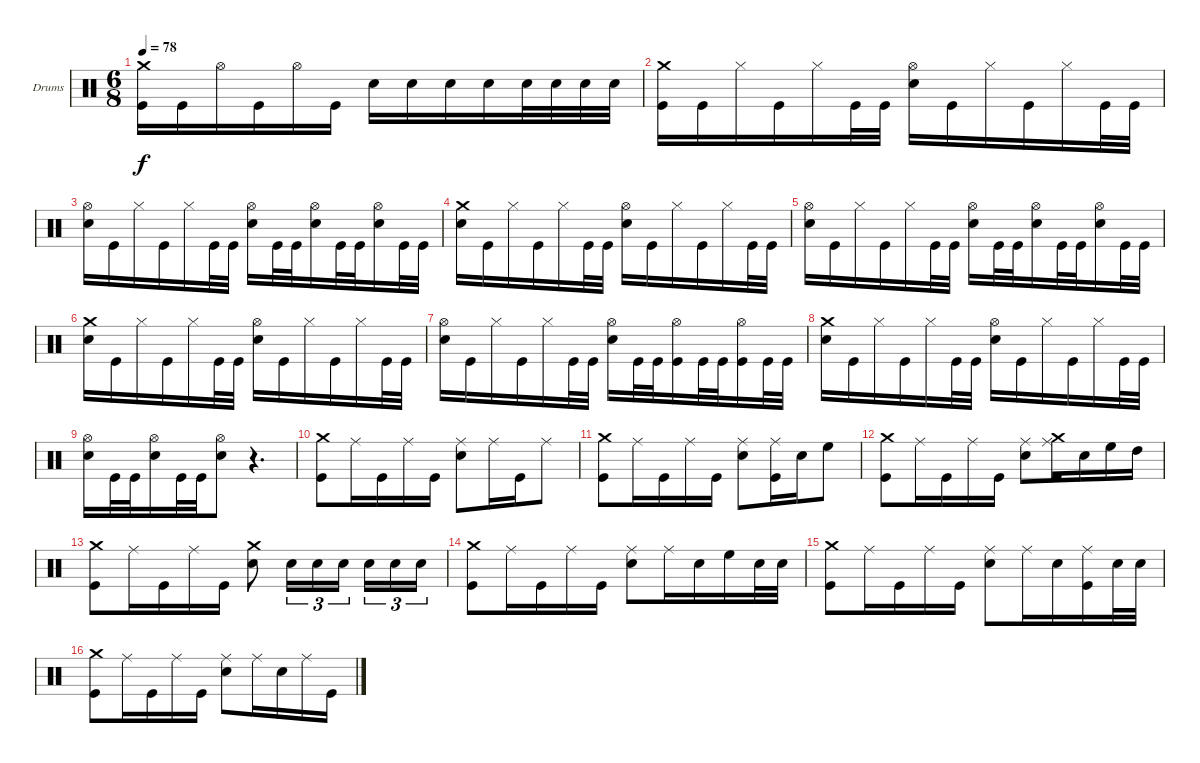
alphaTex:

\defaultSystemsLayout 4
\bracketExtendMode groupsimilarinstruments
\firstSystemTrackNameOrientation horizontal
\otherSystemsTrackNameOrientation horizontal
\track ("Drums" "Drums") {instrument percussion}
\staff {score}
\articulation defaults
\ts (6 8)
\tempo 78
\clef neutral
\scale
0.333333
\ks c
("Crash medium (hit)" "Kick (hit)").16{dy f} "Kick (hit)".16 "Hi-Hat (open)".16 "Kick (hit)".16 "Hi-Hat (open)".16 "Kick (hit)".16 "Snare (hit) 2".16 "Snare (hit) 2".16 "Snare (hit) 2".16 "Snare (hit) 2".16 "Snare (hit) 2".32 "Snare (hit) 2".32 "Snare (hit) 2".32 "Snare (hit) 2".32 |
\scale
0.333333 ("Crash medium (hit)" "Kick (hit)").16 "Kick (hit)".16 "Hi-Hat (closed)".16 "Kick (hit)".16 "Hi-Hat (closed)".16 "Kick (hit)".32 "Kick (hit)".32 ("Hi-Hat (open)" "Snare (hit) 2").16 "Kick (hit)".16 "Hi-Hat (closed)".16 "Kick (hit)".16 "Hi-Hat (closed)".16 "Kick (hit)".32 "Kick (hit)".32 |
\scale
0.333333 ("Hi-Hat (open)" "Snare (hit) 2").16 "Kick (hit)".16 "Hi-Hat (closed)".16 "Kick (hit)".16 "Hi-Hat (closed)".16 "Kick (hit)".32 "Kick (hit)".32 ("Hi-Hat (open)" "Snare (hit) 2").16 "Kick (hit)".32 "Kick (hit)".32 ("Hi-Hat (open)" "Snare (hit) 2").16 "Kick (hit)".32 "Kick (hit)".32 ("Hi-Hat (open)" "Snare (hit) 2").16 "Kick (hit)".32 "Kick (hit)".32 |
\scale
0.333333 ("Crash medium (hit)" "Snare (hit) 2").16 "Kick (hit)".16 "Hi-Hat (closed)".16 "Kick (hit)".16 "Hi-Hat (closed)".16 "Kick (hit)".32 "Kick (hit)".32 ("Hi-Hat (open)" "Snare (hit) 2").16 "Kick (hit)".16 "Hi-Hat (closed)".16 "Kick (hit)".16 "Hi-Hat (closed)".16 "Kick (hit)".32 "Kick (hit)".32 |
\scale
0.333333 ("Hi-Hat (open)" "Snare (hit) 2").16 "Kick (hit)".16 "Hi-Hat (closed)".16 "Kick (hit)".16 "Hi-Hat (closed)".16 "Kick (hit)".32 "Kick (hit)".32 ("Hi-Hat (open)" "Snare (hit) 2").16 "Kick (hit)".32 "Kick (hit)".32 ("Hi-Hat (open)" "Snare (hit) 2").16 "Kick (hit)".32 "Kick (hit)".32 ("Hi-Hat (open)" "Snare (hit) 2").16 "Kick (hit)".32 "Kick (hit)".32 |
\scale
0.333333 ("Crash medium (hit)" "Snare (hit) 2").16 "Kick (hit)".16 "Hi-Hat (closed)".16 "Kick (hit)".16 "Hi-Hat (closed)".16 "Kick (hit)".32 "Kick (hit)".32 ("Hi-Hat (open)" "Snare (hit) 2").16 "Kick (hit)".16 "Hi-Hat (closed)".16 "Kick (hit)".16 "Hi-Hat (closed)".16 "Kick (hit)".32 "Kick (hit)".32 |
\scale
0.333333 ("Hi-Hat (open)" "Snare (hit) 2").16 "Kick (hit)".16 "Hi-Hat (closed)".16 "Kick (hit)".16 "Hi-Hat (closed)".16 "Kick (hit)".32 "Kick (hit)".32 ("Hi-Hat (open)" "Snare (hit) 2").16 "Kick (hit)".32 "Kick (hit)".32 ("Hi-Hat (open)" "Kick (hit)").16 "Kick (hit)".32 "Kick (hit)".32 ("Hi-Hat (open)" "Kick (hit)").16 "Kick (hit)".32 "Kick (hit)".32 |
\scale
0.333333 ("Crash medium (hit)" "Snare (hit) 2").16 "Kick (hit)".16 "Hi-Hat (closed)".16 "Kick (hit)".16 "Hi-Hat (closed)".16 "Kick (hit)".32 "Kick (hit)".32 ("Hi-Hat (open)" "Snare (hit) 2").16 "Kick (hit)".16 "Hi-Hat (closed)".16 "Kick (hit)".16 "Hi-Hat (closed)".16 "Kick (hit)".32 "Kick (hit)".32 |
\scale
0.333333 ("Hi-Hat (open)" "Snare (hit) 2").16 "Kick (hit)".32 "Kick (hit)".32 ("Hi-Hat (open)" "Snare (hit) 2").16 "Kick (hit)".32 "Kick (hit)".32 ("Hi-Hat (open)" "Snare (hit) 2").8 r.4{d} |
\scale
0.333333 ("Crash medium (hit)" "Kick (hit)").8 "Ride (middle)".16 "Kick (hit)".16 "Ride (middle)".16 "Kick (hit)".16 ("Ride (middle)" "Snare (hit) 2").8 "Ride (middle)".16 "Kick (hit)".16 "Ride (middle)".8 |
\scale
0.333333 ("Crash medium (hit)" "Kick (hit)").8 "Ride (middle)".16 "Kick (hit)".16 "Ride (middle)".16 "Kick (hit)".16 ("Ride (middle)" "Snare (hit) 2").8 ("Ride (middle)" "Kick (hit)").16 "Snare (hit) 2".16 "High Floor Tom (hit)".8 |
\scale
0.333333 ("Crash medium (hit)" "Kick (hit)").8 "Ride (middle)".16 "Kick (hit)".16 "Ride (middle)".16 "Kick (hit)".16 ("Ride (middle)" "Snare (hit) 2").8 ("Crash medium (hit)" "Ride (middle)" "Kick (hit)").16 "Snare (hit) 2".16 "High Floor Tom (hit)".16 "High Tom (hit)".16 |
\scale
0.333333 ("Crash medium (hit)" "Kick (hit)").8 "Ride (middle)".16 "Kick (hit)".16 "Ride (middle)".16 "Kick (hit)".16 ("Crash medium (hit)" "Snare (hit) 2").8 "Snare (hit) 2".16{tu (3 2)} "Snare (hit) 2".16{tu (3 2)} "Snare (hit) 2".16{tu (3 2)} "Snare (hit) 2".16{tu (3 2)} "Snare (hit) 2".16{tu (3 2)} "Snare (hit) 2".16{tu (3 2)} |
\scale
0.333333 ("Crash medium (hit)" "Kick (hit)").8 "Ride (middle)".16 "Kick (hit)".16 "Ride (middle)".16 "Kick (hit)".16 ("Ride (middle)" "Snare (hit) 2").8 "Ride (middle)".16 "Snare (hit) 2".16 "High Floor Tom (hit)".16 "Snare (hit) 2".32 "Snare (hit) 2".32 |
\scale
0.333333 ("Crash medium (hit)" "Kick (hit)").8 "Ride (middle)".16 "Kick (hit)".16 "Ride (middle)".16 "Kick (hit)".16 ("Ride (middle)" "Snare (hit) 2").8 "Ride (middle)".16 "Snare (hit) 2".16 ("Ride (middle)" "Kick (hit)").16 "Snare (hit) 2".32 "Snare (hit) 2".32 |
\scale
0.333333 ("Crash medium (hit)" "Kick (hit)").8 "Ride (middle)".16 "Kick (hit)".16 "Ride (middle)".16 "Kick (hit)".16 ("Ride (middle)" "Snare (hit) 2").8 "Ride (middle)".16 "Snare (hit) 2".16 "Ride (middle)".16 "Kick (hit)".16
